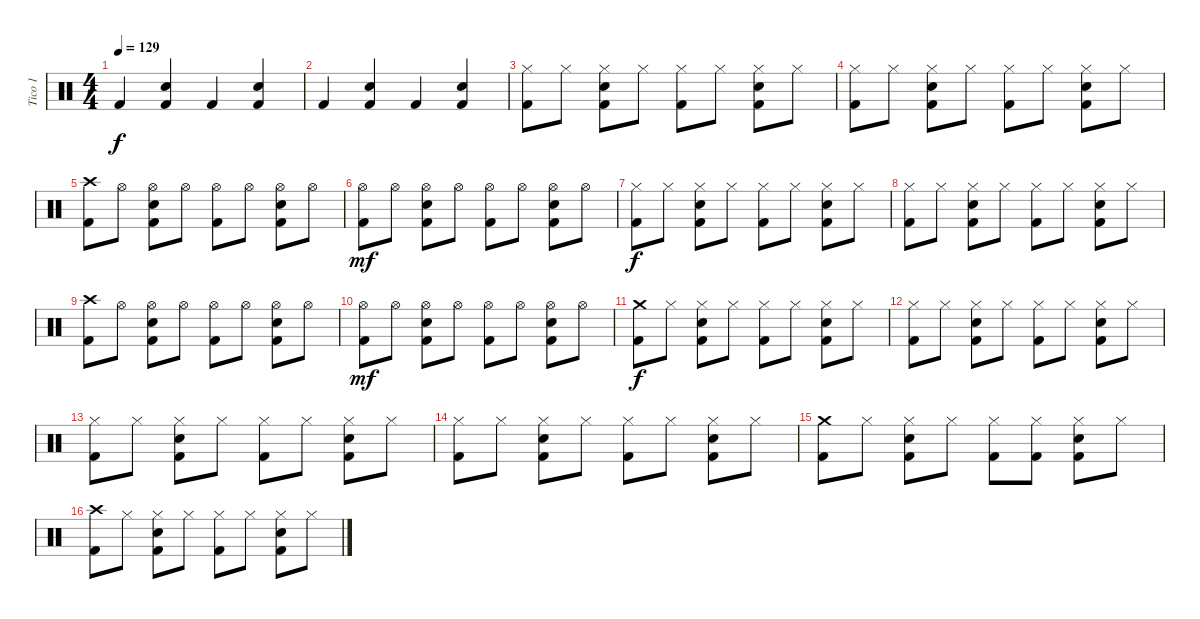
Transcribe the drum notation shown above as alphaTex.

\track ("Tico 1" "Tico 1") {instrument percussion}
\staff {score}
\articulation defaults
\ts (4 4)
\tempo 129
\clef neutral
\ks c "Kick (hit) 2".4{dy f}
("Snare (hit) 2" "Kick (hit) 2").4 "Kick (hit) 2".4 ("Snare (hit) 2" "Kick (hit) 2").4 |
"Kick (hit) 2".4 ("Snare (hit) 2" "Kick (hit) 2").4 "Kick (hit) 2".4 ("Snare (hit) 2" "Kick (hit) 2").4 |
("Hi-Hat (closed)" "Kick (hit) 2").8 "Hi-Hat (closed)".8 ("Hi-Hat (closed)" "Electric Snare (hit)" "Kick (hit) 2").8 "Hi-Hat (closed)".8 ("Hi-Hat (closed)" "Kick (hit) 2").8 "Hi-Hat (closed)".8 ("Hi-Hat (closed)" "Electric Snare (hit)" "Kick (hit) 2").8 "Hi-Hat (closed)".8 |
("Hi-Hat (closed)" "Kick (hit) 2").8 "Hi-Hat (closed)".8 ("Hi-Hat (closed)" "Electric Snare (hit)" "Kick (hit) 2").8 "Hi-Hat (closed)".8 ("Hi-Hat (closed)" "Kick (hit) 2").8 "Hi-Hat (closed)".8 ("Hi-Hat (closed)" "Electric Snare (hit)" "Kick (hit) 2").8 "Hi-Hat (closed)".8 |
("Crash high (hit)" "Kick (hit) 2").8 "Hi-Hat (open)".8 ("Hi-Hat (open)" "Snare (hit) 2" "Kick (hit) 2").8 "Hi-Hat (open)".8 ("Hi-Hat (open)" "Kick (hit) 2").8 "Hi-Hat (open)".8 ("Hi-Hat (open)" "Snare (hit) 2" "Kick (hit) 2").8 "Hi-Hat (open)".8 |
("Hi-Hat (open)" "Kick (hit) 2").8{dy mf} "Hi-Hat (open)".8 ("Hi-Hat (open)" "Snare (hit) 2" "Kick (hit) 2").8 "Hi-Hat (open)".8 ("Hi-Hat (open)" "Kick (hit) 2").8 "Hi-Hat (open)".8 ("Hi-Hat (open)" "Snare (hit) 2" "Kick (hit) 2").8 "Hi-Hat (open)".8 |
("Hi-Hat (closed)" "Kick (hit) 2").8{dy f} "Hi-Hat (closed)".8 ("Hi-Hat (closed)" "Electric Snare (hit)" "Kick (hit) 2").8 "Hi-Hat (closed)".8 ("Hi-Hat (closed)" "Kick (hit) 2").8 "Hi-Hat (closed)".8 ("Hi-Hat (closed)" "Electric Snare (hit)" "Kick (hit) 2").8 "Hi-Hat (closed)".8 |
("Hi-Hat (closed)" "Kick (hit) 2").8 "Hi-Hat (closed)".8 ("Hi-Hat (closed)" "Electric Snare (hit)" "Kick (hit) 2").8 "Hi-Hat (closed)".8 ("Hi-Hat (closed)" "Kick (hit) 2").8 "Hi-Hat (closed)".8 ("Hi-Hat (closed)" "Electric Snare (hit)" "Kick (hit) 2").8 "Hi-Hat (closed)".8 |
("Crash high (hit)" "Kick (hit) 2").8 "Hi-Hat (open)".8 ("Hi-Hat (open)" "Snare (hit) 2" "Kick (hit) 2").8 "Hi-Hat (open)".8 ("Hi-Hat (open)" "Kick (hit) 2").8 "Hi-Hat (open)".8 ("Hi-Hat (open)" "Snare (hit) 2" "Kick (hit) 2").8 "Hi-Hat (open)".8 |
("Hi-Hat (open)" "Kick (hit) 2").8{dy mf} "Hi-Hat (open)".8 ("Hi-Hat (open)" "Snare (hit) 2" "Kick (hit) 2").8 "Hi-Hat (open)".8 ("Hi-Hat (open)" "Kick (hit) 2").8 "Hi-Hat (open)".8 ("Hi-Hat (open)" "Snare (hit) 2" "Kick (hit) 2").8 "Hi-Hat (open)".8 |
("Crash medium (hit)" "Kick (hit) 2").8{dy f} "Hi-Hat (closed)".8 ("Hi-Hat (closed)" "Snare (hit) 2" "Kick (hit) 2").8 "Hi-Hat (closed)".8 ("Hi-Hat (closed)" "Kick (hit) 2").8 "Hi-Hat (closed)".8 ("Hi-Hat (closed)" "Snare (hit) 2" "Kick (hit) 2").8 "Hi-Hat (closed)".8 |
("Hi-Hat (closed)" "Kick (hit) 2").8 "Hi-Hat (closed)".8 ("Hi-Hat (closed)" "Snare (hit) 2" "Kick (hit) 2").8 "Hi-Hat (closed)".8 ("Hi-Hat (closed)" "Kick (hit) 2").8 "Hi-Hat (closed)".8 ("Hi-Hat (closed)" "Snare (hit) 2" "Kick (hit) 2").8 "Hi-Hat (closed)".8 |
("Hi-Hat (closed)" "Kick (hit) 2").8 "Hi-Hat (closed)".8 ("Hi-Hat (closed)" "Snare (hit) 2" "Kick (hit) 2").8 "Hi-Hat (closed)".8 ("Hi-Hat (closed)" "Kick (hit) 2").8 "Hi-Hat (closed)".8 ("Hi-Hat (closed)" "Snare (hit) 2" "Kick (hit) 2").8 "Hi-Hat (closed)".8 |
("Hi-Hat (closed)" "Kick (hit) 2").8 "Hi-Hat (closed)".8 ("Hi-Hat (closed)" "Snare (hit) 2" "Kick (hit) 2").8 "Hi-Hat (closed)".8 ("Hi-Hat (closed)" "Kick (hit) 2").8 "Hi-Hat (closed)".8 ("Hi-Hat (closed)" "Snare (hit) 2" "Kick (hit) 2").8 "Hi-Hat (closed)".8 |
("Crash medium (hit)" "Kick (hit) 2").8 "Hi-Hat (closed)".8 ("Hi-Hat (closed)" "Snare (hit) 2" "Kick (hit) 2").8 "Hi-Hat (closed)".8 ("Hi-Hat (closed)" "Kick (hit) 2").8 ("Hi-Hat (closed)" "Kick (hit) 2").8 ("Hi-Hat (closed)" "Snare (hit) 2" "Kick (hit) 2").8 "Hi-Hat (closed)".8 |
("Crash high (hit)" "Kick (hit) 2").8 "Hi-Hat (closed)".8 ("Hi-Hat (closed)" "Snare (hit) 2" "Kick (hit) 2").8 "Hi-Hat (closed)".8 ("Hi-Hat (closed)" "Kick (hit) 2").8 "Hi-Hat (closed)".8 ("Hi-Hat (closed)" "Snare (hit) 2" "Kick (hit) 2").8 "Hi-Hat (closed)".8
